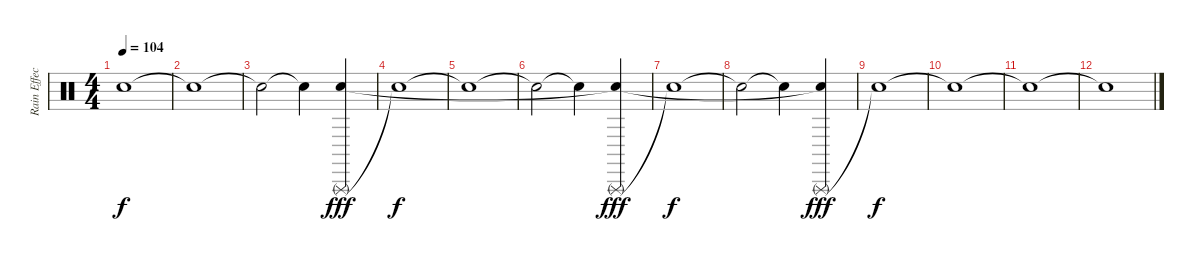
\track ("Rain Effect" "Rain Effec") {instrument percussion}
\staff {score}
\articulation defaults
\ts (4 4)
\tempo 104
\clef neutral
\ks c "Snare (hit)"{t}.1{dy f}
|
"Snare (hit)"{t}.1 |
"Snare (hit)"{t}.2 "Snare (hit)"{t}.4 ("Triangle (rnute)" "Snare (hit)").4{dy fff} |
"Snare (hit)"{t}.1{dy f} |
"Snare (hit)"{t}.1 |
"Snare (hit)"{t}.2 "Snare (hit)"{t}.4 ("Triangle (rnute)" "Snare (hit)"{t}).4{dy fff} |
"Snare (hit)"{t}.1{dy f} |
"Snare (hit)"{t}.2 "Snare (hit)"{t}.4 ("Triangle (rnute)" "Snare (hit)"{t}).4{dy fff} |
"Snare (hit)"{t}.1{dy f} |
"Snare (hit)"{t}.1{volume 0} |
"Snare (hit)"{t}.1 |
"Snare (hit)"{t}.1
